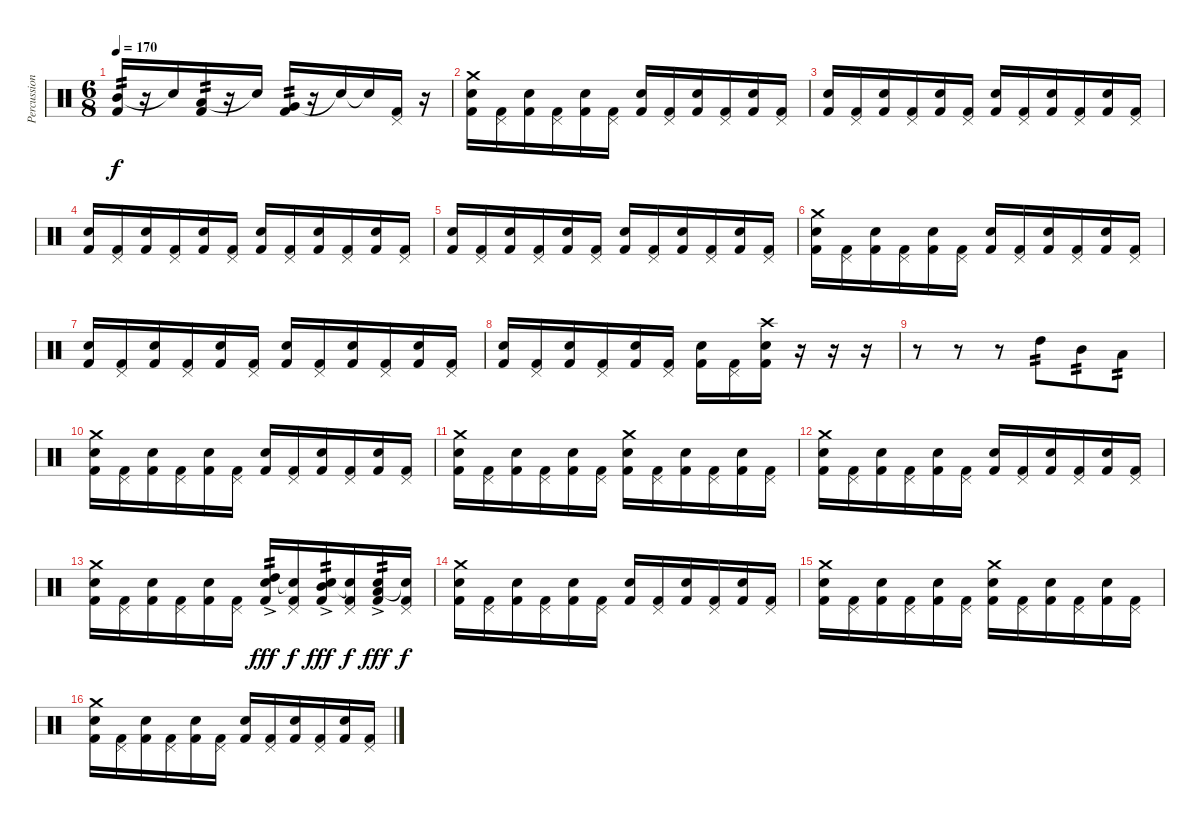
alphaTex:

\track ("Percussions" "Percussion") {instrument percussion}
\staff {score}
\articulation defaults
\ts (6 8)
\tempo 170
\clef neutral
\ks c
("Mid Tom (hit)" "Kick (hit) 2").16{tp 2 dy f} r.16 "Snare (hit)"{t}.16 ("Low Tom (hit)" "Kick (hit) 2").16{tp 2} r.16 "Snare (hit)"{t}.16 ("Very Low Tom (hit)" "Kick (hit) 2").16{tp 2} r.16 "Snare (hit)"{t}.16 "Snare (hit)"{t}.16 ("Pedal Hi-Hat (hit)" "Kick (hit) 2").16 r.16 |
("Crash medium (hit)" "Snare (hit) 2" "Kick (hit) 2").16 ("Pedal Hi-Hat (hit)" "Kick (hit) 2").16 ("Snare (hit) 2" "Kick (hit) 2").16 ("Pedal Hi-Hat (hit)" "Kick (hit) 2").16 ("Snare (hit) 2" "Kick (hit) 2").16 ("Pedal Hi-Hat (hit)" "Kick (hit) 2").16 ("Snare (hit) 2" "Kick (hit) 2").16 ("Pedal Hi-Hat (hit)" "Kick (hit) 2").16 ("Snare (hit) 2" "Kick (hit) 2").16 ("Pedal Hi-Hat (hit)" "Kick (hit) 2").16 ("Snare (hit) 2" "Kick (hit) 2").16 ("Pedal Hi-Hat (hit)" "Kick (hit) 2").16 |
("Snare (hit) 2" "Kick (hit) 2").16 ("Pedal Hi-Hat (hit)" "Kick (hit) 2").16 ("Snare (hit) 2" "Kick (hit) 2").16 ("Pedal Hi-Hat (hit)" "Kick (hit) 2").16 ("Snare (hit) 2" "Kick (hit) 2").16 ("Pedal Hi-Hat (hit)" "Kick (hit) 2").16 ("Snare (hit) 2" "Kick (hit) 2").16 ("Pedal Hi-Hat (hit)" "Kick (hit) 2").16 ("Snare (hit) 2" "Kick (hit) 2").16 ("Pedal Hi-Hat (hit)" "Kick (hit) 2").16 ("Snare (hit) 2" "Kick (hit) 2").16 ("Pedal Hi-Hat (hit)" "Kick (hit) 2").16 |
("Snare (hit) 2" "Kick (hit) 2").16 ("Pedal Hi-Hat (hit)" "Kick (hit) 2").16 ("Snare (hit) 2" "Kick (hit) 2").16 ("Pedal Hi-Hat (hit)" "Kick (hit) 2").16 ("Snare (hit) 2" "Kick (hit) 2").16 ("Pedal Hi-Hat (hit)" "Kick (hit) 2").16 ("Snare (hit) 2" "Kick (hit) 2").16 ("Pedal Hi-Hat (hit)" "Kick (hit) 2").16 ("Snare (hit) 2" "Kick (hit) 2").16 ("Pedal Hi-Hat (hit)" "Kick (hit) 2").16 ("Snare (hit) 2" "Kick (hit) 2").16 ("Pedal Hi-Hat (hit)" "Kick (hit) 2").16 |
("Snare (hit) 2" "Kick (hit) 2").16 ("Pedal Hi-Hat (hit)" "Kick (hit) 2").16 ("Snare (hit) 2" "Kick (hit) 2").16 ("Pedal Hi-Hat (hit)" "Kick (hit) 2").16 ("Snare (hit) 2" "Kick (hit) 2").16 ("Pedal Hi-Hat (hit)" "Kick (hit) 2").16 ("Snare (hit) 2" "Kick (hit) 2").16 ("Pedal Hi-Hat (hit)" "Kick (hit) 2").16 ("Snare (hit) 2" "Kick (hit) 2").16 ("Pedal Hi-Hat (hit)" "Kick (hit) 2").16 ("Snare (hit) 2" "Kick (hit) 2").16 ("Pedal Hi-Hat (hit)" "Kick (hit) 2").16 |
("Crash medium (hit)" "Snare (hit) 2" "Kick (hit) 2").16 ("Pedal Hi-Hat (hit)" "Kick (hit) 2").16 ("Snare (hit) 2" "Kick (hit) 2").16 ("Pedal Hi-Hat (hit)" "Kick (hit) 2").16 ("Snare (hit) 2" "Kick (hit) 2").16 ("Pedal Hi-Hat (hit)" "Kick (hit) 2").16 ("Snare (hit) 2" "Kick (hit) 2").16 ("Pedal Hi-Hat (hit)" "Kick (hit) 2").16 ("Snare (hit) 2" "Kick (hit) 2").16 ("Pedal Hi-Hat (hit)" "Kick (hit) 2").16 ("Snare (hit) 2" "Kick (hit) 2").16 ("Pedal Hi-Hat (hit)" "Kick (hit) 2").16 |
("Snare (hit) 2" "Kick (hit) 2").16 ("Pedal Hi-Hat (hit)" "Kick (hit) 2").16 ("Snare (hit) 2" "Kick (hit) 2").16 ("Pedal Hi-Hat (hit)" "Kick (hit) 2").16 ("Snare (hit) 2" "Kick (hit) 2").16 ("Pedal Hi-Hat (hit)" "Kick (hit) 2").16 ("Snare (hit) 2" "Kick (hit) 2").16 ("Pedal Hi-Hat (hit)" "Kick (hit) 2").16 ("Snare (hit) 2" "Kick (hit) 2").16 ("Pedal Hi-Hat (hit)" "Kick (hit) 2").16 ("Snare (hit) 2" "Kick (hit) 2").16 ("Pedal Hi-Hat (hit)" "Kick (hit) 2").16 |
("Snare (hit) 2" "Kick (hit) 2").16 ("Pedal Hi-Hat (hit)" "Kick (hit) 2").16 ("Snare (hit) 2" "Kick (hit) 2").16 ("Pedal Hi-Hat (hit)" "Kick (hit) 2").16 ("Snare (hit) 2" "Kick (hit) 2").16 ("Pedal Hi-Hat (hit)" "Kick (hit) 2").16 ("Snare (hit) 2" "Kick (hit) 2").16 ("Pedal Hi-Hat (hit)" "Kick (hit) 2").16 ("Crash high (hit)" "Snare (hit) 2" "Kick (hit) 2").16 r.16 r.16 r.16 |
r.8 r.8 r.8 "High Tom (hit)".8{tp 2} "Mid Tom (hit)".8{tp 2} "Low Tom (hit)".8{tp 2} |
("Crash medium (hit)" "Snare (hit) 2" "Kick (hit) 2").16 ("Pedal Hi-Hat (hit)" "Kick (hit) 2").16 ("Snare (hit) 2" "Kick (hit) 2").16 ("Pedal Hi-Hat (hit)" "Kick (hit) 2").16 ("Snare (hit) 2" "Kick (hit) 2").16 ("Pedal Hi-Hat (hit)" "Kick (hit) 2").16 ("Snare (hit) 2" "Kick (hit) 2").16 ("Pedal Hi-Hat (hit)" "Kick (hit) 2").16 ("Snare (hit) 2" "Kick (hit) 2").16 ("Pedal Hi-Hat (hit)" "Kick (hit) 2").16 ("Snare (hit) 2" "Kick (hit) 2").16 ("Pedal Hi-Hat (hit)" "Kick (hit) 2").16 |
("Crash medium (hit)" "Snare (hit) 2" "Kick (hit) 2").16 ("Pedal Hi-Hat (hit)" "Kick (hit) 2").16 ("Snare (hit) 2" "Kick (hit) 2").16 ("Pedal Hi-Hat (hit)" "Kick (hit) 2").16 ("Snare (hit) 2" "Kick (hit) 2").16 ("Pedal Hi-Hat (hit)" "Kick (hit) 2").16 ("Crash medium (hit)" "Snare (hit) 2" "Kick (hit) 2").16 ("Pedal Hi-Hat (hit)" "Kick (hit) 2").16 ("Snare (hit) 2" "Kick (hit) 2").16 ("Pedal Hi-Hat (hit)" "Kick (hit) 2").16 ("Snare (hit) 2" "Kick (hit) 2").16 ("Pedal Hi-Hat (hit)" "Kick (hit) 2").16 |
("Crash medium (hit)" "Snare (hit) 2" "Kick (hit) 2").16 ("Pedal Hi-Hat (hit)" "Kick (hit) 2").16 ("Snare (hit) 2" "Kick (hit) 2").16 ("Pedal Hi-Hat (hit)" "Kick (hit) 2").16 ("Snare (hit) 2" "Kick (hit) 2").16 ("Pedal Hi-Hat (hit)" "Kick (hit) 2").16 ("Snare (hit) 2" "Kick (hit) 2").16 ("Pedal Hi-Hat (hit)" "Kick (hit) 2").16 ("Snare (hit) 2" "Kick (hit) 2").16 ("Pedal Hi-Hat (hit)" "Kick (hit) 2").16 ("Snare (hit) 2" "Kick (hit) 2").16 ("Pedal Hi-Hat (hit)" "Kick (hit) 2").16 |
("Crash medium (hit)" "Snare (hit) 2" "Kick (hit) 2").16 ("Pedal Hi-Hat (hit)" "Kick (hit) 2").16 ("Snare (hit) 2" "Kick (hit) 2").16 ("Pedal Hi-Hat (hit)" "Kick (hit) 2").16 ("Snare (hit) 2" "Kick (hit) 2").16 ("Pedal Hi-Hat (hit)" "Kick (hit) 2").16 ("High Tom (hit)"{ac} "Snare (hit) 2" "Kick (hit) 2").16{tp 2 dy fff} ("Snare (hit)"{t} "Pedal Hi-Hat (hit)" "Kick (hit) 2").16{dy f} ("Mid Tom (hit)"{ac} "Snare (hit) 2" "Kick (hit) 2").16{tp 2 dy fff} ("Snare (hit)"{t} "Pedal Hi-Hat (hit)" "Kick (hit) 2").16{dy f} ("Low Tom (hit)"{ac} "Snare (hit) 2" "Kick (hit) 2").16{tp 2 dy fff} ("Snare (hit)"{t} "Pedal Hi-Hat (hit)" "Kick (hit) 2").16{dy f} |
("Crash medium (hit)" "Snare (hit) 2" "Kick (hit) 2").16 ("Pedal Hi-Hat (hit)" "Kick (hit) 2").16 ("Snare (hit) 2" "Kick (hit) 2").16 ("Pedal Hi-Hat (hit)" "Kick (hit) 2").16 ("Snare (hit) 2" "Kick (hit) 2").16 ("Pedal Hi-Hat (hit)" "Kick (hit) 2").16 ("Snare (hit) 2" "Kick (hit) 2").16 ("Pedal Hi-Hat (hit)" "Kick (hit) 2").16 ("Snare (hit) 2" "Kick (hit) 2").16 ("Pedal Hi-Hat (hit)" "Kick (hit) 2").16 ("Snare (hit) 2" "Kick (hit) 2").16 ("Pedal Hi-Hat (hit)" "Kick (hit) 2").16 |
("Crash medium (hit)" "Snare (hit) 2" "Kick (hit) 2").16 ("Pedal Hi-Hat (hit)" "Kick (hit) 2").16 ("Snare (hit) 2" "Kick (hit) 2").16 ("Pedal Hi-Hat (hit)" "Kick (hit) 2").16 ("Snare (hit) 2" "Kick (hit) 2").16 ("Pedal Hi-Hat (hit)" "Kick (hit) 2").16 ("Crash medium (hit)" "Snare (hit) 2" "Kick (hit) 2").16 ("Pedal Hi-Hat (hit)" "Kick (hit) 2").16 ("Snare (hit) 2" "Kick (hit) 2").16 ("Pedal Hi-Hat (hit)" "Kick (hit) 2").16 ("Snare (hit) 2" "Kick (hit) 2").16 ("Pedal Hi-Hat (hit)" "Kick (hit) 2").16 |
("Crash medium (hit)" "Snare (hit) 2" "Kick (hit) 2").16 ("Pedal Hi-Hat (hit)" "Kick (hit) 2").16 ("Snare (hit) 2" "Kick (hit) 2").16 ("Pedal Hi-Hat (hit)" "Kick (hit) 2").16 ("Snare (hit) 2" "Kick (hit) 2").16 ("Pedal Hi-Hat (hit)" "Kick (hit) 2").16 ("Snare (hit) 2" "Kick (hit) 2").16 ("Pedal Hi-Hat (hit)" "Kick (hit) 2").16 ("Snare (hit) 2" "Kick (hit) 2").16 ("Pedal Hi-Hat (hit)" "Kick (hit) 2").16 ("Snare (hit) 2" "Kick (hit) 2").16 ("Pedal Hi-Hat (hit)" "Kick (hit) 2").16
